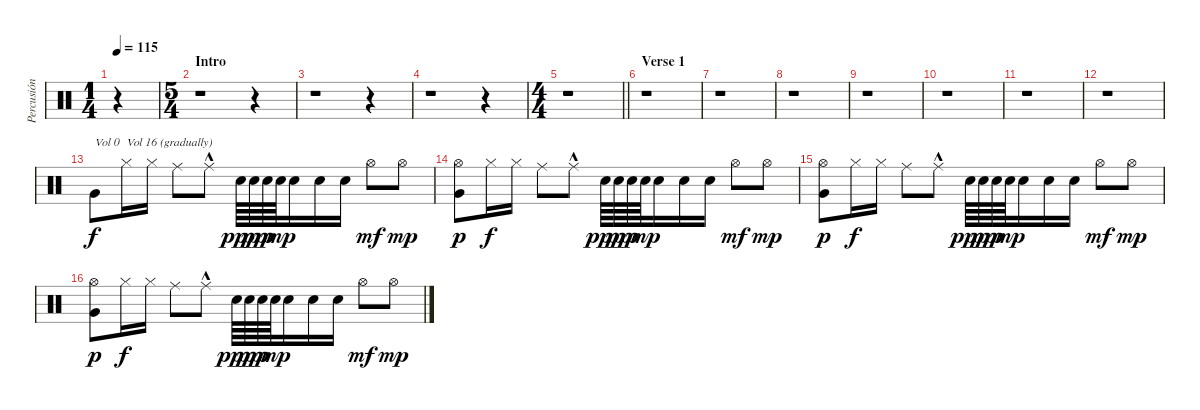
\track ("Percusión" "Percusión") {instrument percussion}
\staff {score}
\articulation defaults
\ts (1 4)
\tempo 115
\clef neutral
\ks c
r.4{dy f} |
\ts (5 4)
\section ("" "Intro")
r.1 r.4 |
r.1 r.4 |
r.1 r.4 |
\ts (4 4)
\barLineRight lightlight
r.1 |
\section ("" "Verse 1")
r.1 |
r.1 |
r.1 |
r.1 |
r.1 |
r.1 |
r.1 |
"Very Low Tom (hit)".8{txt "Vol 0" volume 0} "Hi-Hat (closed)".16{txt "Vol 16 (gradually)" volume 8} "Hi-Hat (closed)".16 "Ride (middle)".8 "Ride (middle)"{hac}.8 "Electric Snare (hit)".64{dy ppp} "Electric Snare (hit)".64{dy pp} "Electric Snare (hit)".64{dy p} "Electric Snare (hit)".64{dy mp} "Electric Snare (hit)".16 "Electric Snare (hit)".16 "Electric Snare (hit)".16 "Hi-Hat (open)".8{dy mf} "Hi-Hat (open)".8{dy mp} |
("Hi-Hat (open)" "Very Low Tom (hit)").8{dy p} "Hi-Hat (closed)".16{dy f} "Hi-Hat (closed)".16 "Ride (middle)".8 "Ride (middle)"{hac}.8 "Electric Snare (hit)".64{dy ppp} "Electric Snare (hit)".64{dy pp} "Electric Snare (hit)".64{dy p} "Electric Snare (hit)".64{dy mp} "Electric Snare (hit)".16 "Electric Snare (hit)".16 "Electric Snare (hit)".16 "Hi-Hat (open)".8{dy mf} "Hi-Hat (open)".8{dy mp} |
("Hi-Hat (open)" "Very Low Tom (hit)").8{dy p} "Hi-Hat (closed)".16{dy f} "Hi-Hat (closed)".16 "Ride (middle)".8 "Ride (middle)"{hac}.8 "Electric Snare (hit)".64{dy ppp} "Electric Snare (hit)".64{dy pp} "Electric Snare (hit)".64{dy p} "Electric Snare (hit)".64{dy mp} "Electric Snare (hit)".16 "Electric Snare (hit)".16 "Electric Snare (hit)".16 "Hi-Hat (open)".8{dy mf} "Hi-Hat (open)".8{dy mp} |
("Hi-Hat (open)" "Very Low Tom (hit)").8{dy p} "Hi-Hat (closed)".16{dy f} "Hi-Hat (closed)".16 "Ride (middle)".8 "Ride (middle)"{hac}.8 "Electric Snare (hit)".64{dy ppp} "Electric Snare (hit)".64{dy pp} "Electric Snare (hit)".64{dy p} "Electric Snare (hit)".64{dy mp} "Electric Snare (hit)".16 "Electric Snare (hit)".16 "Electric Snare (hit)".16 "Hi-Hat (open)".8{dy mf} "Hi-Hat (open)".8{dy mp}
